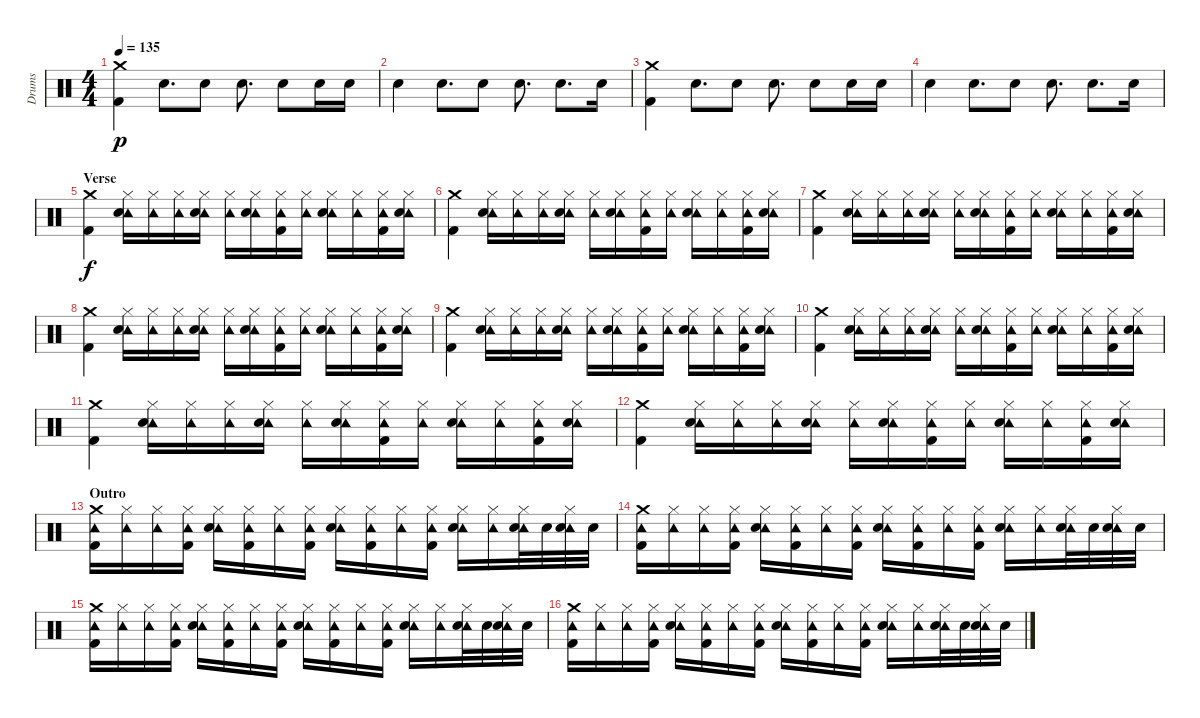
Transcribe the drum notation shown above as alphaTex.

\track ("Drums" "Drums") {instrument percussion}
\staff {score}
\articulation defaults
\ts (4 4)
\tempo 135
\clef neutral
\ks c
("Crash medium (hit)" "Kick (hit) 2").4{dy p} "Snare (hit) 2".8{d} "Snare (hit) 2".8 "Snare (hit) 2".8{d} "Snare (hit) 2".8 "Snare (hit) 2".16 "Snare (hit) 2".16 |
"Snare (hit) 2".4 "Snare (hit) 2".8{d} "Snare (hit) 2".8 "Snare (hit) 2".8{d} "Snare (hit) 2".8{d} "Snare (hit) 2".16 |
("Crash medium (hit)" "Kick (hit) 2").4 "Snare (hit) 2".8{d} "Snare (hit) 2".8 "Snare (hit) 2".8{d} "Snare (hit) 2".8 "Snare (hit) 2".16 "Snare (hit) 2".16 |
"Snare (hit) 2".4 "Snare (hit) 2".8{d} "Snare (hit) 2".8 "Snare (hit) 2".8{d} "Snare (hit) 2".8{d} "Snare (hit) 2".16 |
\section ("" "Verse")
("Crash medium (hit)" "Kick (hit) 2").4{dy f} ("Hi-Hat (closed)" "Tambourine (hit)" "Snare (hit) 2").16 ("Hi-Hat (closed)" "Tambourine (hit)").16 ("Hi-Hat (closed)" "Tambourine (hit)").16 ("Hi-Hat (closed)" "Tambourine (hit)" "Snare (hit) 2").16 ("Hi-Hat (closed)" "Tambourine (hit)").16 ("Hi-Hat (closed)" "Tambourine (hit)" "Snare (hit) 2").16 ("Hi-Hat (closed)" "Tambourine (hit)" "Kick (hit) 2").16 ("Hi-Hat (closed)" "Tambourine (hit)").16 ("Hi-Hat (closed)" "Tambourine (hit)" "Snare (hit) 2").16 ("Hi-Hat (closed)" "Tambourine (hit)").16 ("Hi-Hat (closed)" "Tambourine (hit)" "Kick (hit) 2").16 ("Hi-Hat (closed)" "Tambourine (hit)" "Snare (hit) 2").16 |
("Crash medium (hit)" "Kick (hit) 2").4 ("Hi-Hat (closed)" "Tambourine (hit)" "Snare (hit) 2").16 ("Hi-Hat (closed)" "Tambourine (hit)").16 ("Hi-Hat (closed)" "Tambourine (hit)").16 ("Hi-Hat (closed)" "Tambourine (hit)" "Snare (hit) 2").16 ("Hi-Hat (closed)" "Tambourine (hit)").16 ("Hi-Hat (closed)" "Tambourine (hit)" "Snare (hit) 2").16 ("Hi-Hat (closed)" "Tambourine (hit)" "Kick (hit) 2").16 ("Hi-Hat (closed)" "Tambourine (hit)").16 ("Hi-Hat (closed)" "Tambourine (hit)" "Snare (hit) 2").16 ("Hi-Hat (closed)" "Tambourine (hit)").16 ("Hi-Hat (closed)" "Tambourine (hit)" "Kick (hit) 2").16 ("Hi-Hat (closed)" "Tambourine (hit)" "Snare (hit) 2").16 |
("Crash medium (hit)" "Kick (hit) 2").4 ("Hi-Hat (closed)" "Tambourine (hit)" "Snare (hit) 2").16 ("Hi-Hat (closed)" "Tambourine (hit)").16 ("Hi-Hat (closed)" "Tambourine (hit)").16 ("Hi-Hat (closed)" "Tambourine (hit)" "Snare (hit) 2").16 ("Hi-Hat (closed)" "Tambourine (hit)").16 ("Hi-Hat (closed)" "Tambourine (hit)" "Snare (hit) 2").16 ("Hi-Hat (closed)" "Tambourine (hit)" "Kick (hit) 2").16 ("Hi-Hat (closed)" "Tambourine (hit)").16 ("Hi-Hat (closed)" "Tambourine (hit)" "Snare (hit) 2").16 ("Hi-Hat (closed)" "Tambourine (hit)").16 ("Hi-Hat (closed)" "Tambourine (hit)" "Kick (hit) 2").16 ("Hi-Hat (closed)" "Tambourine (hit)" "Snare (hit) 2").16 |
("Crash medium (hit)" "Kick (hit) 2").4 ("Hi-Hat (closed)" "Tambourine (hit)" "Snare (hit) 2").16 ("Hi-Hat (closed)" "Tambourine (hit)").16 ("Hi-Hat (closed)" "Tambourine (hit)").16 ("Hi-Hat (closed)" "Tambourine (hit)" "Snare (hit) 2").16 ("Hi-Hat (closed)" "Tambourine (hit)").16 ("Hi-Hat (closed)" "Tambourine (hit)" "Snare (hit) 2").16 ("Hi-Hat (closed)" "Tambourine (hit)" "Kick (hit) 2").16 ("Hi-Hat (closed)" "Tambourine (hit)").16 ("Hi-Hat (closed)" "Tambourine (hit)" "Snare (hit) 2").16 ("Hi-Hat (closed)" "Tambourine (hit)").16 ("Hi-Hat (closed)" "Tambourine (hit)" "Kick (hit) 2").16 ("Hi-Hat (closed)" "Tambourine (hit)" "Snare (hit) 2").16 |
("Crash medium (hit)" "Kick (hit) 2").4 ("Hi-Hat (closed)" "Tambourine (hit)" "Snare (hit) 2").16 ("Hi-Hat (closed)" "Tambourine (hit)").16 ("Hi-Hat (closed)" "Tambourine (hit)").16 ("Hi-Hat (closed)" "Tambourine (hit)" "Snare (hit) 2").16 ("Hi-Hat (closed)" "Tambourine (hit)").16 ("Hi-Hat (closed)" "Tambourine (hit)" "Snare (hit) 2").16 ("Hi-Hat (closed)" "Tambourine (hit)" "Kick (hit) 2").16 ("Hi-Hat (closed)" "Tambourine (hit)").16 ("Hi-Hat (closed)" "Tambourine (hit)" "Snare (hit) 2").16 ("Hi-Hat (closed)" "Tambourine (hit)").16 ("Hi-Hat (closed)" "Tambourine (hit)" "Kick (hit) 2").16 ("Hi-Hat (closed)" "Tambourine (hit)" "Snare (hit) 2").16 |
("Crash medium (hit)" "Kick (hit) 2").4 ("Hi-Hat (closed)" "Tambourine (hit)" "Snare (hit) 2").16 ("Hi-Hat (closed)" "Tambourine (hit)").16 ("Hi-Hat (closed)" "Tambourine (hit)").16 ("Hi-Hat (closed)" "Tambourine (hit)" "Snare (hit) 2").16 ("Hi-Hat (closed)" "Tambourine (hit)").16 ("Hi-Hat (closed)" "Tambourine (hit)" "Snare (hit) 2").16 ("Hi-Hat (closed)" "Tambourine (hit)" "Kick (hit) 2").16 ("Hi-Hat (closed)" "Tambourine (hit)").16 ("Hi-Hat (closed)" "Tambourine (hit)" "Snare (hit) 2").16 ("Hi-Hat (closed)" "Tambourine (hit)").16 ("Hi-Hat (closed)" "Tambourine (hit)" "Kick (hit) 2").16 ("Hi-Hat (closed)" "Tambourine (hit)" "Snare (hit) 2").16 |
("Crash medium (hit)" "Kick (hit) 2").4 ("Hi-Hat (closed)" "Tambourine (hit)" "Snare (hit) 2").16 ("Hi-Hat (closed)" "Tambourine (hit)").16 ("Hi-Hat (closed)" "Tambourine (hit)").16 ("Hi-Hat (closed)" "Tambourine (hit)" "Snare (hit) 2").16 ("Hi-Hat (closed)" "Tambourine (hit)").16 ("Hi-Hat (closed)" "Tambourine (hit)" "Snare (hit) 2").16 ("Hi-Hat (closed)" "Tambourine (hit)" "Kick (hit) 2").16 ("Hi-Hat (closed)" "Tambourine (hit)").16 ("Hi-Hat (closed)" "Tambourine (hit)" "Snare (hit) 2").16 ("Hi-Hat (closed)" "Tambourine (hit)").16 ("Hi-Hat (closed)" "Tambourine (hit)" "Kick (hit) 2").16 ("Hi-Hat (closed)" "Tambourine (hit)" "Snare (hit) 2").16 |
("Crash medium (hit)" "Kick (hit) 2").4 ("Hi-Hat (closed)" "Tambourine (hit)" "Snare (hit) 2").16 ("Hi-Hat (closed)" "Tambourine (hit)").16 ("Hi-Hat (closed)" "Tambourine (hit)").16 ("Hi-Hat (closed)" "Tambourine (hit)" "Snare (hit) 2").16 ("Hi-Hat (closed)" "Tambourine (hit)").16 ("Hi-Hat (closed)" "Tambourine (hit)" "Snare (hit) 2").16 ("Hi-Hat (closed)" "Tambourine (hit)" "Kick (hit) 2").16 ("Hi-Hat (closed)" "Tambourine (hit)").16 ("Hi-Hat (closed)" "Tambourine (hit)" "Snare (hit) 2").16 ("Hi-Hat (closed)" "Tambourine (hit)").16 ("Hi-Hat (closed)" "Tambourine (hit)" "Kick (hit) 2").16 ("Hi-Hat (closed)" "Tambourine (hit)" "Snare (hit) 2").16 |
\section ("" "Outro")
("Crash medium (hit)" "Tambourine (hit)" "Kick (hit) 2").16 ("Hi-Hat (closed)" "Tambourine (hit)").16 ("Hi-Hat (closed)" "Tambourine (hit)").16 ("Hi-Hat (closed)" "Tambourine (hit)" "Kick (hit) 2").16 ("Hi-Hat (closed)" "Tambourine (hit)" "Snare (hit) 2").16 ("Hi-Hat (closed)" "Tambourine (hit)" "Kick (hit) 2").16 ("Hi-Hat (closed)" "Tambourine (hit)").16 ("Hi-Hat (closed)" "Tambourine (hit)" "Kick (hit) 2").16 ("Hi-Hat (closed)" "Tambourine (hit)" "Snare (hit) 2").16 ("Hi-Hat (closed)" "Tambourine (hit)" "Kick (hit) 2").16 ("Hi-Hat (closed)" "Tambourine (hit)").16 ("Hi-Hat (closed)" "Tambourine (hit)" "Kick (hit) 2").16 ("Hi-Hat (closed)" "Tambourine (hit)" "Snare (hit) 2").16 ("Hi-Hat (closed)" "Tambourine (hit)").16 ("Hi-Hat (closed)" "Tambourine (hit)" "Snare (hit) 2").32 "Snare (hit) 2".32 ("Hi-Hat (closed)" "Tambourine (hit)" "Snare (hit) 2").32 "Snare (hit) 2".32 |
("Crash medium (hit)" "Tambourine (hit)" "Kick (hit) 2").16 ("Hi-Hat (closed)" "Tambourine (hit)").16 ("Hi-Hat (closed)" "Tambourine (hit)").16 ("Hi-Hat (closed)" "Tambourine (hit)" "Kick (hit) 2").16 ("Hi-Hat (closed)" "Tambourine (hit)" "Snare (hit) 2").16 ("Hi-Hat (closed)" "Tambourine (hit)" "Kick (hit) 2").16 ("Hi-Hat (closed)" "Tambourine (hit)").16 ("Hi-Hat (closed)" "Tambourine (hit)" "Kick (hit) 2").16 ("Hi-Hat (closed)" "Tambourine (hit)" "Snare (hit) 2").16 ("Hi-Hat (closed)" "Tambourine (hit)" "Kick (hit) 2").16 ("Hi-Hat (closed)" "Tambourine (hit)").16 ("Hi-Hat (closed)" "Tambourine (hit)" "Kick (hit) 2").16 ("Hi-Hat (closed)" "Tambourine (hit)" "Snare (hit) 2").16 ("Hi-Hat (closed)" "Tambourine (hit)").16 ("Hi-Hat (closed)" "Tambourine (hit)" "Snare (hit) 2").32 "Snare (hit) 2".32 ("Hi-Hat (closed)" "Tambourine (hit)" "Snare (hit) 2").32 "Snare (hit) 2".32 |
("Crash medium (hit)" "Tambourine (hit)" "Kick (hit) 2").16 ("Hi-Hat (closed)" "Tambourine (hit)").16 ("Hi-Hat (closed)" "Tambourine (hit)").16 ("Hi-Hat (closed)" "Tambourine (hit)" "Kick (hit) 2").16 ("Hi-Hat (closed)" "Tambourine (hit)" "Snare (hit) 2").16 ("Hi-Hat (closed)" "Tambourine (hit)" "Kick (hit) 2").16 ("Hi-Hat (closed)" "Tambourine (hit)").16 ("Hi-Hat (closed)" "Tambourine (hit)" "Kick (hit) 2").16 ("Hi-Hat (closed)" "Tambourine (hit)" "Snare (hit) 2").16 ("Hi-Hat (closed)" "Tambourine (hit)" "Kick (hit) 2").16 ("Hi-Hat (closed)" "Tambourine (hit)").16 ("Hi-Hat (closed)" "Tambourine (hit)" "Kick (hit) 2").16 ("Hi-Hat (closed)" "Tambourine (hit)" "Snare (hit) 2").16 ("Hi-Hat (closed)" "Tambourine (hit)").16 ("Hi-Hat (closed)" "Tambourine (hit)" "Snare (hit) 2").32 "Snare (hit) 2".32 ("Hi-Hat (closed)" "Tambourine (hit)" "Snare (hit) 2").32 "Snare (hit) 2".32 |
("Crash medium (hit)" "Tambourine (hit)" "Kick (hit) 2").16 ("Hi-Hat (closed)" "Tambourine (hit)").16 ("Hi-Hat (closed)" "Tambourine (hit)").16 ("Hi-Hat (closed)" "Tambourine (hit)" "Kick (hit) 2").16 ("Hi-Hat (closed)" "Tambourine (hit)" "Snare (hit) 2").16 ("Hi-Hat (closed)" "Tambourine (hit)" "Kick (hit) 2").16 ("Hi-Hat (closed)" "Tambourine (hit)").16 ("Hi-Hat (closed)" "Tambourine (hit)" "Kick (hit) 2").16 ("Hi-Hat (closed)" "Tambourine (hit)" "Snare (hit) 2").16 ("Hi-Hat (closed)" "Tambourine (hit)" "Kick (hit) 2").16 ("Hi-Hat (closed)" "Tambourine (hit)").16 ("Hi-Hat (closed)" "Tambourine (hit)" "Kick (hit) 2").16 ("Hi-Hat (closed)" "Tambourine (hit)" "Snare (hit) 2").16 ("Hi-Hat (closed)" "Tambourine (hit)").16 ("Hi-Hat (closed)" "Tambourine (hit)" "Snare (hit) 2").32 "Snare (hit) 2".32 ("Hi-Hat (closed)" "Tambourine (hit)" "Snare (hit) 2").32 "Snare (hit) 2".32
